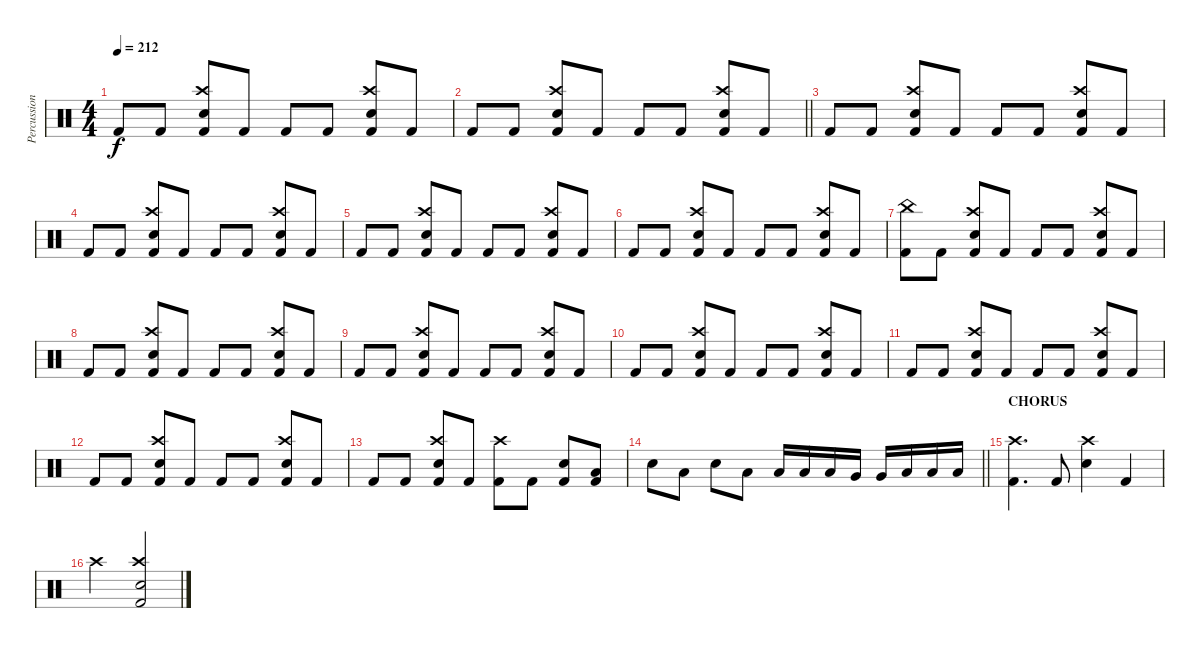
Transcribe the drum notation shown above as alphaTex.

\track ("Percussions" "Percussion") {instrument percussion}
\staff {score}
\articulation defaults
\ts (4 4)
\tempo 212
\clef neutral
\ks c "Kick (hit) 2".8{dy f} "Kick (hit) 2".8
("Crash high (hit)" "Snare (hit) 2" "Kick (hit) 2").8 "Kick (hit) 2".8 "Kick (hit) 2".8 "Kick (hit) 2".8 ("Crash high (hit)" "Snare (hit) 2" "Kick (hit) 2").8 "Kick (hit) 2".8 |
\barLineRight lightlight "Kick (hit) 2".8 "Kick (hit) 2".8
("Crash high (hit)" "Snare (hit) 2" "Kick (hit) 2").8 "Kick (hit) 2".8 "Kick (hit) 2".8 "Kick (hit) 2".8 ("Crash high (hit)" "Snare (hit) 2" "Kick (hit) 2").8 "Kick (hit) 2".8 |
\section ("" "")
"Kick (hit) 2".8 "Kick (hit) 2".8 ("Crash high (hit)" "Snare (hit) 2" "Kick (hit) 2").8 "Kick (hit) 2".8 "Kick (hit) 2".8 "Kick (hit) 2".8 ("Crash high (hit)" "Snare (hit) 2" "Kick (hit) 2").8 "Kick (hit) 2".8 |
"Kick (hit) 2".8 "Kick (hit) 2".8 ("Crash high (hit)" "Snare (hit) 2" "Kick (hit) 2").8 "Kick (hit) 2".8 "Kick (hit) 2".8 "Kick (hit) 2".8 ("Crash high (hit)" "Snare (hit) 2" "Kick (hit) 2").8 "Kick (hit) 2".8 |
"Kick (hit) 2".8 "Kick (hit) 2".8 ("Crash high (hit)" "Snare (hit) 2" "Kick (hit) 2").8 "Kick (hit) 2".8 "Kick (hit) 2".8 "Kick (hit) 2".8 ("Crash high (hit)" "Snare (hit) 2" "Kick (hit) 2").8 "Kick (hit) 2".8 |
"Kick (hit) 2".8 "Kick (hit) 2".8 ("Crash high (hit)" "Snare (hit) 2" "Kick (hit) 2").8 "Kick (hit) 2".8 "Kick (hit) 2".8 "Kick (hit) 2".8 ("Crash high (hit)" "Snare (hit) 2" "Kick (hit) 2").8 "Kick (hit) 2".8 |
("China (hit)" "Kick (hit) 2").8 "Kick (hit) 2".8 ("Crash high (hit)" "Snare (hit) 2" "Kick (hit) 2").8 "Kick (hit) 2".8 "Kick (hit) 2".8 "Kick (hit) 2".8 ("Crash high (hit)" "Snare (hit) 2" "Kick (hit) 2").8 "Kick (hit) 2".8 |
"Kick (hit) 2".8 "Kick (hit) 2".8 ("Crash high (hit)" "Snare (hit) 2" "Kick (hit) 2").8 "Kick (hit) 2".8 "Kick (hit) 2".8 "Kick (hit) 2".8 ("Crash high (hit)" "Snare (hit) 2" "Kick (hit) 2").8 "Kick (hit) 2".8 |
"Kick (hit) 2".8 "Kick (hit) 2".8 ("Crash high (hit)" "Snare (hit) 2" "Kick (hit) 2").8 "Kick (hit) 2".8 "Kick (hit) 2".8 "Kick (hit) 2".8 ("Crash high (hit)" "Snare (hit) 2" "Kick (hit) 2").8 "Kick (hit) 2".8 |
"Kick (hit) 2".8 "Kick (hit) 2".8 ("Crash high (hit)" "Snare (hit) 2" "Kick (hit) 2").8 "Kick (hit) 2".8 "Kick (hit) 2".8 "Kick (hit) 2".8 ("Crash high (hit)" "Snare (hit) 2" "Kick (hit) 2").8 "Kick (hit) 2".8 |
"Kick (hit) 2".8 "Kick (hit) 2".8 ("Crash high (hit)" "Snare (hit) 2" "Kick (hit) 2").8 "Kick (hit) 2".8 "Kick (hit) 2".8 "Kick (hit) 2".8 ("Crash high (hit)" "Snare (hit) 2" "Kick (hit) 2").8 "Kick (hit) 2".8 |
"Kick (hit) 2".8 "Kick (hit) 2".8 ("Crash high (hit)" "Snare (hit) 2" "Kick (hit) 2").8 "Kick (hit) 2".8 "Kick (hit) 2".8 "Kick (hit) 2".8 ("Crash high (hit)" "Snare (hit) 2" "Kick (hit) 2").8 "Kick (hit) 2".8 |
"Kick (hit) 2".8 "Kick (hit) 2".8 ("Crash high (hit)" "Snare (hit) 2" "Kick (hit) 2").8 "Kick (hit) 2".8 ("Crash high (hit)" "Kick (hit) 2").8 "Kick (hit) 2".8 ("Snare (hit) 2" "Kick (hit) 2").8 ("Low Tom (hit)" "Kick (hit) 2").8 |
\barLineRight lightlight "Snare (hit) 2".8 "Low Tom (hit)".8 "Snare (hit) 2".8 "Low Tom (hit)".8 "Low Tom (hit)".16 "Low Tom (hit)".16 "Low Tom (hit)".16 "Very Low Tom (hit)".16 "Very Low Tom (hit)".16 "Low Floor Tom (hit)".16 "Low Floor Tom (hit)".16 "Low Floor Tom (hit)".16
|
\section ("" "CHORUS")
("Crash high (hit)" "Kick (hit) 2").4{d} "Kick (hit) 2".8 ("Crash high (hit)" "Snare (hit) 2").4 "Kick (hit) 2".4 |
"Crash high (hit)".2 ("Crash high (hit)" "Snare (hit) 2" "Kick (hit) 2").2
